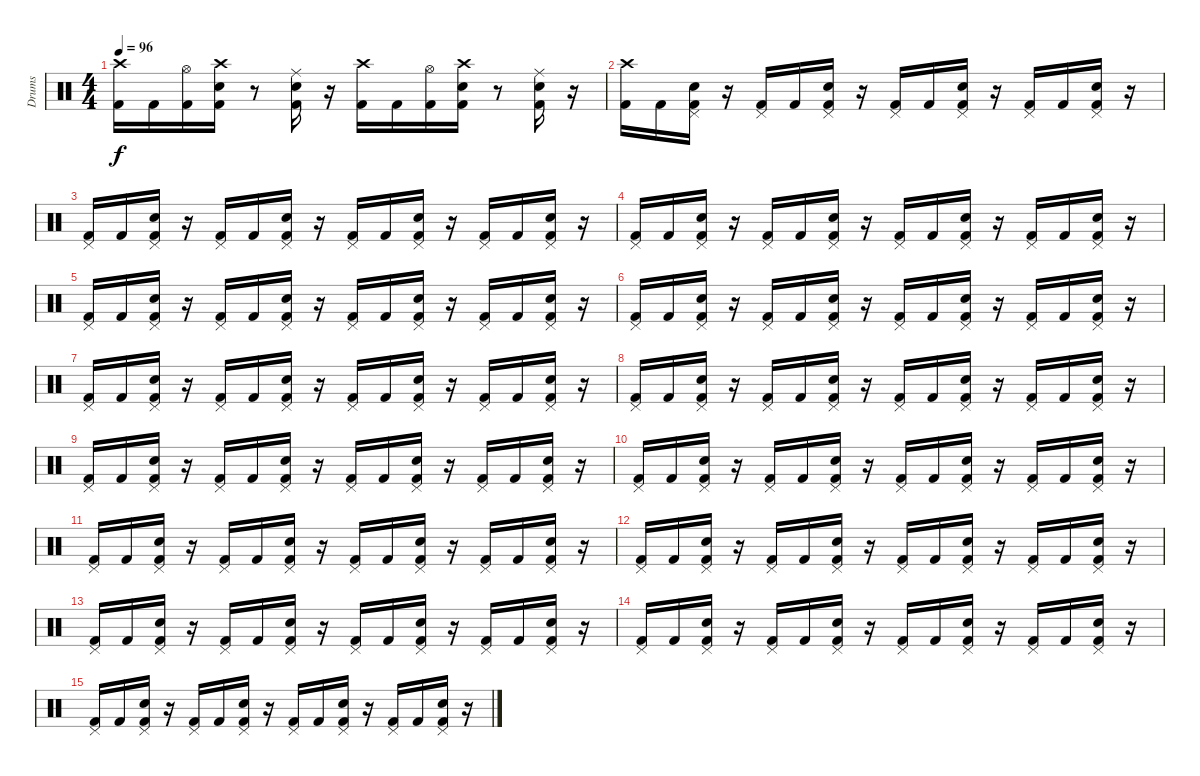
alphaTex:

\track ("Drums" "Drums") {instrument percussion}
\staff {score}
\articulation defaults
\ts (4 4)
\tempo 96
\clef neutral
\ks c
("Crash high (hit)" "Kick (hit) 2").16{dy f} "Kick (hit) 2".16 ("Hi-Hat (open)" "Kick (hit) 2").16 ("Crash high (hit)" "Snare (hit) 2" "Kick (hit) 2").16 r.8 ("Ride (middle)" "Snare (hit) 2" "Kick (hit) 2").16 r.16 ("Crash high (hit)" "Kick (hit) 2").16 "Kick (hit) 2".16 ("Hi-Hat (open)" "Kick (hit) 2").16 ("Crash high (hit)" "Snare (hit) 2" "Kick (hit) 2").16 r.8 ("Ride (middle)" "Snare (hit) 2" "Kick (hit) 2").16 r.16 |
("Crash high (hit)" "Kick (hit) 2").16 "Kick (hit) 2".16 ("Pedal Hi-Hat (hit)" "Snare (hit) 2" "Kick (hit) 2").16 r.16 ("Pedal Hi-Hat (hit)" "Kick (hit) 2").16 "Kick (hit) 2".16 ("Pedal Hi-Hat (hit)" "Snare (hit) 2" "Kick (hit) 2").16 r.16 ("Pedal Hi-Hat (hit)" "Kick (hit) 2").16 "Kick (hit) 2".16 ("Pedal Hi-Hat (hit)" "Snare (hit) 2" "Kick (hit) 2").16 r.16 ("Pedal Hi-Hat (hit)" "Kick (hit) 2").16 "Kick (hit) 2".16 ("Pedal Hi-Hat (hit)" "Snare (hit) 2" "Kick (hit) 2").16 r.16 |
("Pedal Hi-Hat (hit)" "Kick (hit) 2").16 "Kick (hit) 2".16 ("Pedal Hi-Hat (hit)" "Snare (hit) 2" "Kick (hit) 2").16 r.16 ("Pedal Hi-Hat (hit)" "Kick (hit) 2").16 "Kick (hit) 2".16 ("Pedal Hi-Hat (hit)" "Snare (hit) 2" "Kick (hit) 2").16 r.16 ("Pedal Hi-Hat (hit)" "Kick (hit) 2").16 "Kick (hit) 2".16 ("Pedal Hi-Hat (hit)" "Snare (hit) 2" "Kick (hit) 2").16 r.16 ("Pedal Hi-Hat (hit)" "Kick (hit) 2").16 "Kick (hit) 2".16 ("Pedal Hi-Hat (hit)" "Snare (hit) 2" "Kick (hit) 2").16 r.16 |
("Pedal Hi-Hat (hit)" "Kick (hit) 2").16 "Kick (hit) 2".16 ("Pedal Hi-Hat (hit)" "Snare (hit) 2" "Kick (hit) 2").16 r.16 ("Pedal Hi-Hat (hit)" "Kick (hit) 2").16 "Kick (hit) 2".16 ("Pedal Hi-Hat (hit)" "Snare (hit) 2" "Kick (hit) 2").16 r.16 ("Pedal Hi-Hat (hit)" "Kick (hit) 2").16 "Kick (hit) 2".16 ("Pedal Hi-Hat (hit)" "Snare (hit) 2" "Kick (hit) 2").16 r.16 ("Pedal Hi-Hat (hit)" "Kick (hit) 2").16 "Kick (hit) 2".16 ("Pedal Hi-Hat (hit)" "Snare (hit) 2" "Kick (hit) 2").16 r.16 |
("Pedal Hi-Hat (hit)" "Kick (hit) 2").16 "Kick (hit) 2".16 ("Pedal Hi-Hat (hit)" "Snare (hit) 2" "Kick (hit) 2").16 r.16 ("Pedal Hi-Hat (hit)" "Kick (hit) 2").16 "Kick (hit) 2".16 ("Pedal Hi-Hat (hit)" "Snare (hit) 2" "Kick (hit) 2").16 r.16 ("Pedal Hi-Hat (hit)" "Kick (hit) 2").16 "Kick (hit) 2".16 ("Pedal Hi-Hat (hit)" "Snare (hit) 2" "Kick (hit) 2").16 r.16 ("Pedal Hi-Hat (hit)" "Kick (hit) 2").16 "Kick (hit) 2".16 ("Pedal Hi-Hat (hit)" "Snare (hit) 2" "Kick (hit) 2").16 r.16 |
("Pedal Hi-Hat (hit)" "Kick (hit) 2").16 "Kick (hit) 2".16 ("Pedal Hi-Hat (hit)" "Snare (hit) 2" "Kick (hit) 2").16 r.16 ("Pedal Hi-Hat (hit)" "Kick (hit) 2").16 "Kick (hit) 2".16 ("Pedal Hi-Hat (hit)" "Snare (hit) 2" "Kick (hit) 2").16 r.16 ("Pedal Hi-Hat (hit)" "Kick (hit) 2").16 "Kick (hit) 2".16 ("Pedal Hi-Hat (hit)" "Snare (hit) 2" "Kick (hit) 2").16 r.16 ("Pedal Hi-Hat (hit)" "Kick (hit) 2").16 "Kick (hit) 2".16 ("Pedal Hi-Hat (hit)" "Snare (hit) 2" "Kick (hit) 2").16 r.16 |
("Pedal Hi-Hat (hit)" "Kick (hit) 2").16 "Kick (hit) 2".16 ("Pedal Hi-Hat (hit)" "Snare (hit) 2" "Kick (hit) 2").16 r.16 ("Pedal Hi-Hat (hit)" "Kick (hit) 2").16 "Kick (hit) 2".16 ("Pedal Hi-Hat (hit)" "Snare (hit) 2" "Kick (hit) 2").16 r.16 ("Pedal Hi-Hat (hit)" "Kick (hit) 2").16 "Kick (hit) 2".16 ("Pedal Hi-Hat (hit)" "Snare (hit) 2" "Kick (hit) 2").16 r.16 ("Pedal Hi-Hat (hit)" "Kick (hit) 2").16 "Kick (hit) 2".16 ("Pedal Hi-Hat (hit)" "Snare (hit) 2" "Kick (hit) 2").16 r.16 |
("Pedal Hi-Hat (hit)" "Kick (hit) 2").16 "Kick (hit) 2".16 ("Pedal Hi-Hat (hit)" "Snare (hit) 2" "Kick (hit) 2").16 r.16 ("Pedal Hi-Hat (hit)" "Kick (hit) 2").16 "Kick (hit) 2".16 ("Pedal Hi-Hat (hit)" "Snare (hit) 2" "Kick (hit) 2").16 r.16 ("Pedal Hi-Hat (hit)" "Kick (hit) 2").16 "Kick (hit) 2".16 ("Pedal Hi-Hat (hit)" "Snare (hit) 2" "Kick (hit) 2").16 r.16 ("Pedal Hi-Hat (hit)" "Kick (hit) 2").16 "Kick (hit) 2".16 ("Pedal Hi-Hat (hit)" "Snare (hit) 2" "Kick (hit) 2").16 r.16 |
("Pedal Hi-Hat (hit)" "Kick (hit) 2").16 "Kick (hit) 2".16 ("Pedal Hi-Hat (hit)" "Snare (hit) 2" "Kick (hit) 2").16 r.16 ("Pedal Hi-Hat (hit)" "Kick (hit) 2").16 "Kick (hit) 2".16 ("Pedal Hi-Hat (hit)" "Snare (hit) 2" "Kick (hit) 2").16 r.16 ("Pedal Hi-Hat (hit)" "Kick (hit) 2").16 "Kick (hit) 2".16 ("Pedal Hi-Hat (hit)" "Snare (hit) 2" "Kick (hit) 2").16 r.16 ("Pedal Hi-Hat (hit)" "Kick (hit) 2").16 "Kick (hit) 2".16 ("Pedal Hi-Hat (hit)" "Snare (hit) 2" "Kick (hit) 2").16 r.16 |
("Pedal Hi-Hat (hit)" "Kick (hit) 2").16 "Kick (hit) 2".16 ("Pedal Hi-Hat (hit)" "Snare (hit) 2" "Kick (hit) 2").16 r.16 ("Pedal Hi-Hat (hit)" "Kick (hit) 2").16 "Kick (hit) 2".16 ("Pedal Hi-Hat (hit)" "Snare (hit) 2" "Kick (hit) 2").16 r.16 ("Pedal Hi-Hat (hit)" "Kick (hit) 2").16 "Kick (hit) 2".16 ("Pedal Hi-Hat (hit)" "Snare (hit) 2" "Kick (hit) 2").16 r.16 ("Pedal Hi-Hat (hit)" "Kick (hit) 2").16 "Kick (hit) 2".16 ("Pedal Hi-Hat (hit)" "Snare (hit) 2" "Kick (hit) 2").16 r.16 |
("Pedal Hi-Hat (hit)" "Kick (hit) 2").16 "Kick (hit) 2".16 ("Pedal Hi-Hat (hit)" "Snare (hit) 2" "Kick (hit) 2").16 r.16 ("Pedal Hi-Hat (hit)" "Kick (hit) 2").16 "Kick (hit) 2".16 ("Pedal Hi-Hat (hit)" "Snare (hit) 2" "Kick (hit) 2").16 r.16 ("Pedal Hi-Hat (hit)" "Kick (hit) 2").16 "Kick (hit) 2".16 ("Pedal Hi-Hat (hit)" "Snare (hit) 2" "Kick (hit) 2").16 r.16 ("Pedal Hi-Hat (hit)" "Kick (hit) 2").16 "Kick (hit) 2".16 ("Pedal Hi-Hat (hit)" "Snare (hit) 2" "Kick (hit) 2").16 r.16 |
("Pedal Hi-Hat (hit)" "Kick (hit) 2").16 "Kick (hit) 2".16 ("Pedal Hi-Hat (hit)" "Snare (hit) 2" "Kick (hit) 2").16 r.16 ("Pedal Hi-Hat (hit)" "Kick (hit) 2").16 "Kick (hit) 2".16 ("Pedal Hi-Hat (hit)" "Snare (hit) 2" "Kick (hit) 2").16 r.16 ("Pedal Hi-Hat (hit)" "Kick (hit) 2").16 "Kick (hit) 2".16 ("Pedal Hi-Hat (hit)" "Snare (hit) 2" "Kick (hit) 2").16 r.16 ("Pedal Hi-Hat (hit)" "Kick (hit) 2").16 "Kick (hit) 2".16 ("Pedal Hi-Hat (hit)" "Snare (hit) 2" "Kick (hit) 2").16 r.16 |
("Pedal Hi-Hat (hit)" "Kick (hit) 2").16 "Kick (hit) 2".16 ("Pedal Hi-Hat (hit)" "Snare (hit) 2" "Kick (hit) 2").16 r.16 ("Pedal Hi-Hat (hit)" "Kick (hit) 2").16 "Kick (hit) 2".16 ("Pedal Hi-Hat (hit)" "Snare (hit) 2" "Kick (hit) 2").16 r.16 ("Pedal Hi-Hat (hit)" "Kick (hit) 2").16 "Kick (hit) 2".16 ("Pedal Hi-Hat (hit)" "Snare (hit) 2" "Kick (hit) 2").16 r.16 ("Pedal Hi-Hat (hit)" "Kick (hit) 2").16 "Kick (hit) 2".16 ("Pedal Hi-Hat (hit)" "Snare (hit) 2" "Kick (hit) 2").16 r.16 |
("Pedal Hi-Hat (hit)" "Kick (hit) 2").16 "Kick (hit) 2".16 ("Pedal Hi-Hat (hit)" "Snare (hit) 2" "Kick (hit) 2").16 r.16 ("Pedal Hi-Hat (hit)" "Kick (hit) 2").16 "Kick (hit) 2".16 ("Pedal Hi-Hat (hit)" "Snare (hit) 2" "Kick (hit) 2").16 r.16 ("Pedal Hi-Hat (hit)" "Kick (hit) 2").16 "Kick (hit) 2".16 ("Pedal Hi-Hat (hit)" "Snare (hit) 2" "Kick (hit) 2").16 r.16 ("Pedal Hi-Hat (hit)" "Kick (hit) 2").16 "Kick (hit) 2".16 ("Pedal Hi-Hat (hit)" "Snare (hit) 2" "Kick (hit) 2").16 r.16 |
("Pedal Hi-Hat (hit)" "Kick (hit) 2").16 "Kick (hit) 2".16 ("Pedal Hi-Hat (hit)" "Snare (hit) 2" "Kick (hit) 2").16 r.16 ("Pedal Hi-Hat (hit)" "Kick (hit) 2").16 "Kick (hit) 2".16 ("Pedal Hi-Hat (hit)" "Snare (hit) 2" "Kick (hit) 2").16 r.16 ("Pedal Hi-Hat (hit)" "Kick (hit) 2").16 "Kick (hit) 2".16 ("Pedal Hi-Hat (hit)" "Snare (hit) 2" "Kick (hit) 2").16 r.16 ("Pedal Hi-Hat (hit)" "Kick (hit) 2").16 "Kick (hit) 2".16 ("Pedal Hi-Hat (hit)" "Snare (hit) 2" "Kick (hit) 2").16 r.16
